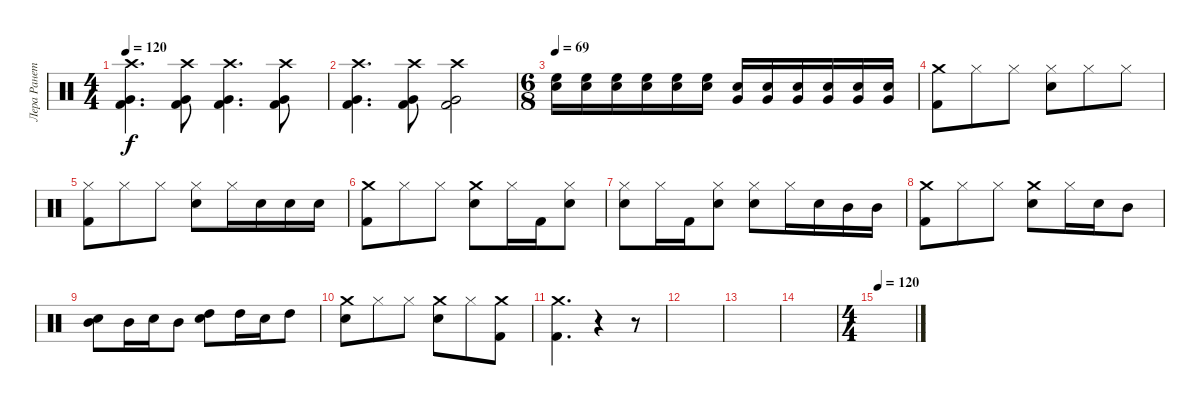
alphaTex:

\track ("Лера Ранетка" "Лера Ранет") {instrument percussion}
\staff {score}
\articulation defaults
\ts (4 4)
\tempo 120
\clef neutral
\ks c
("Crash high (hit)" "Very Low Tom (hit)" "Kick (hit) 2").4{d dy f} ("Crash high (hit)" "Very Low Tom (hit)" "Kick (hit) 2").8 ("Crash high (hit)" "Very Low Tom (hit)" "Kick (hit) 2").4{d} ("Crash high (hit)" "Very Low Tom (hit)" "Kick (hit) 2").8 |
("Crash high (hit)" "Very Low Tom (hit)" "Kick (hit) 2").4{d} ("Crash high (hit)" "Very Low Tom (hit)" "Kick (hit) 2").8 ("Crash high (hit)" "Very Low Tom (hit)" "Kick (hit) 2").2 |
\ts (6 8)
\tempo 69
("High Floor Tom (hit)" "Snare (hit) 2").16 ("High Floor Tom (hit)" "Snare (hit) 2").16 ("High Floor Tom (hit)" "Snare (hit) 2").16 ("High Floor Tom (hit)" "Snare (hit) 2").16 ("High Floor Tom (hit)" "Snare (hit) 2").16 ("High Floor Tom (hit)" "Snare (hit) 2").16 ("Very Low Tom (hit)" "Snare (hit) 2").16 ("Very Low Tom (hit)" "Snare (hit) 2").16 ("Very Low Tom (hit)" "Snare (hit) 2").16 ("Very Low Tom (hit)" "Snare (hit) 2").16 ("Very Low Tom (hit)" "Snare (hit) 2").16 ("Very Low Tom (hit)" "Snare (hit) 2").16 |
("Kick (hit) 2" "Crash medium (hit)").8 "Hi-Hat (closed)".8 "Hi-Hat (closed)".8 ("Snare (hit) 2" "Hi-Hat (closed)").8 "Hi-Hat (closed)".8 "Hi-Hat (closed)".8 |
("Kick (hit) 2" "Hi-Hat (closed)").8 "Hi-Hat (closed)".8 "Hi-Hat (closed)".8 ("Snare (hit) 2" "Hi-Hat (closed)").8 "Hi-Hat (closed)".16 "Snare (hit) 2".16 "Snare (hit) 2".16 "Snare (hit) 2".16 |
("Kick (hit) 2" "Crash medium (hit)").8 "Hi-Hat (closed)".8 "Hi-Hat (closed)".8 ("Snare (hit) 2" "Crash medium (hit)").8 "Hi-Hat (closed)".16 "Kick (hit) 2".16 ("Snare (hit) 2" "Hi-Hat (closed)").8 |
("Snare (hit) 2" "Hi-Hat (closed)").8 "Hi-Hat (closed)".16 "Kick (hit) 2".16 ("Snare (hit) 2" "Hi-Hat (closed)").8 ("Snare (hit) 2" "Hi-Hat (closed)").8 "Hi-Hat (closed)".16 "Snare (hit) 2".16 "Mid Tom (hit)".16 "Mid Tom (hit)".16 |
("Kick (hit) 2" "Crash medium (hit)").8 "Hi-Hat (closed)".8 "Hi-Hat (closed)".8 ("Snare (hit) 2" "Crash medium (hit)").8 "Hi-Hat (closed)".16 "Snare (hit) 2".16 "Mid Tom (hit)".8 |
("Mid Tom (hit)" "Snare (hit) 2").8 "Mid Tom (hit)".16 "Snare (hit) 2".16 "Mid Tom (hit)".8 ("High Tom (hit)" "Snare (hit) 2").8 "High Tom (hit)".16 "Snare (hit) 2".16 "High Tom (hit)".8 |
("Snare (hit) 2" "Crash medium (hit)").8 "Hi-Hat (closed)".8 "Hi-Hat (closed)".8 ("Snare (hit) 2" "Crash medium (hit)").8 "Hi-Hat (closed)".8 ("Kick (hit) 2" "Crash medium (hit)").8 |
("Kick (hit) 2" "Crash medium (hit)").4{d} r.4 r.8 |
|
|
|
\ts (4 4)
\tempo 120
